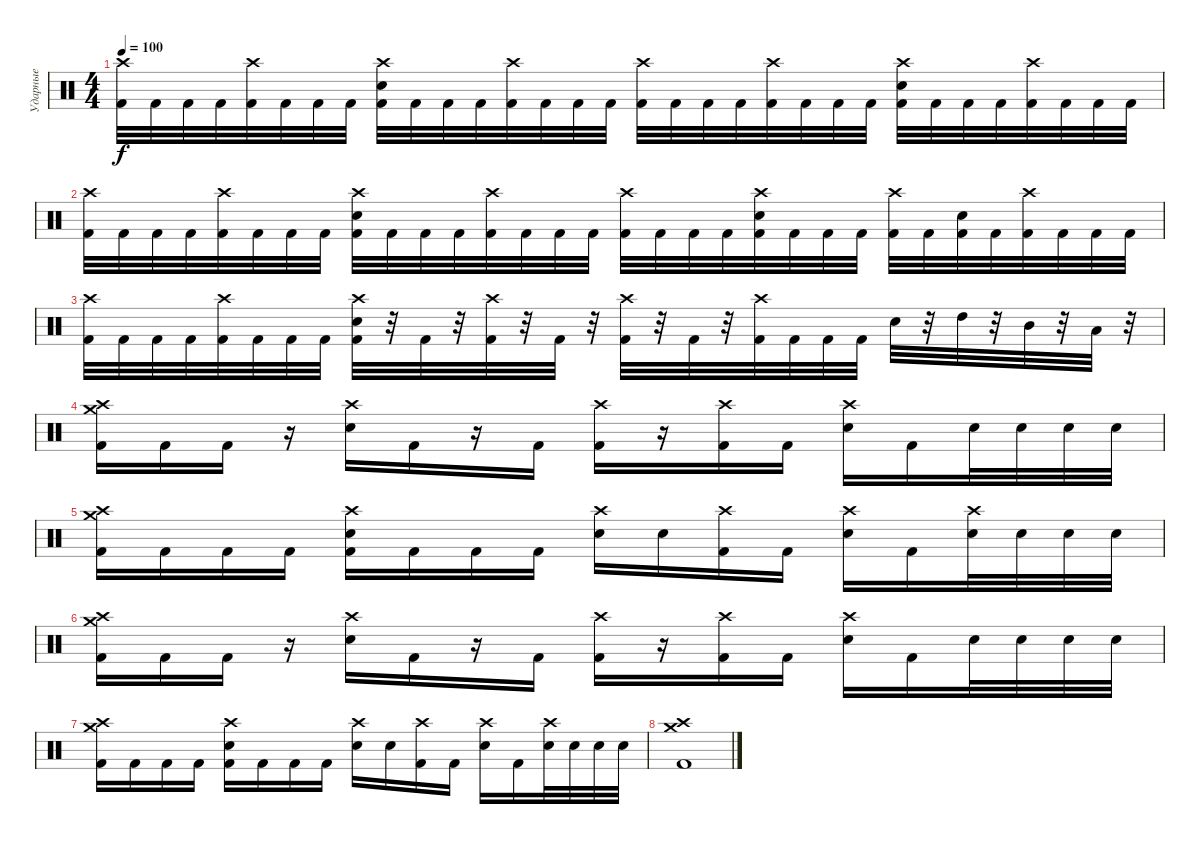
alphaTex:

\track ("Ударные" "Ударные") {instrument percussion}
\staff {score}
\articulation defaults
\ts (4 4)
\tempo 100
\clef neutral
\ks c
("Crash high (hit)" "Kick (hit) 2").32{dy f} "Kick (hit) 2".32 "Kick (hit) 2".32 "Kick (hit) 2".32 ("Crash high (hit)" "Kick (hit) 2").32 "Kick (hit) 2".32 "Kick (hit) 2".32 "Kick (hit) 2".32 ("Crash high (hit)" "Electric Snare (hit)" "Kick (hit) 2").32 "Kick (hit) 2".32 "Kick (hit) 2".32 "Kick (hit) 2".32 ("Crash high (hit)" "Kick (hit) 2").32 "Kick (hit) 2".32 "Kick (hit) 2".32 "Kick (hit) 2".32 ("Crash high (hit)" "Kick (hit) 2").32 "Kick (hit) 2".32 "Kick (hit) 2".32 "Kick (hit) 2".32 ("Crash high (hit)" "Kick (hit) 2").32 "Kick (hit) 2".32 "Kick (hit) 2".32 "Kick (hit) 2".32 ("Crash high (hit)" "Electric Snare (hit)" "Kick (hit) 2").32 "Kick (hit) 2".32 "Kick (hit) 2".32 "Kick (hit) 2".32 ("Crash high (hit)" "Kick (hit) 2").32 "Kick (hit) 2".32 "Kick (hit) 2".32 "Kick (hit) 2".32 |
("Crash high (hit)" "Kick (hit) 2").32 "Kick (hit) 2".32 "Kick (hit) 2".32 "Kick (hit) 2".32 ("Crash high (hit)" "Kick (hit) 2").32 "Kick (hit) 2".32 "Kick (hit) 2".32 "Kick (hit) 2".32 ("Crash high (hit)" "Electric Snare (hit)" "Kick (hit) 2").32 "Kick (hit) 2".32 "Kick (hit) 2".32 "Kick (hit) 2".32 ("Crash high (hit)" "Kick (hit) 2").32 "Kick (hit) 2".32 "Kick (hit) 2".32 "Kick (hit) 2".32 ("Crash high (hit)" "Kick (hit) 2").32 "Kick (hit) 2".32 "Kick (hit) 2".32 "Kick (hit) 2".32 ("Crash high (hit)" "Electric Snare (hit)" "Kick (hit) 2").32 "Kick (hit) 2".32 "Kick (hit) 2".32 "Kick (hit) 2".32 ("Crash high (hit)" "Kick (hit) 2").32 "Kick (hit) 2".32 ("Electric Snare (hit)" "Kick (hit) 2").32 "Kick (hit) 2".32 ("Crash high (hit)" "Kick (hit) 2").32 "Kick (hit) 2".32 "Kick (hit) 2".32 "Kick (hit) 2".32 |
("Crash high (hit)" "Kick (hit) 2").32 "Kick (hit) 2".32 "Kick (hit) 2".32 "Kick (hit) 2".32 ("Crash high (hit)" "Kick (hit) 2").32 "Kick (hit) 2".32 "Kick (hit) 2".32 "Kick (hit) 2".32 ("Crash high (hit)" "Electric Snare (hit)" "Kick (hit) 2").32 r.32 "Kick (hit) 2".32 r.32 ("Crash high (hit)" "Kick (hit) 2").32 r.32 "Kick (hit) 2".32 r.32 ("Crash high (hit)" "Kick (hit) 2").32 r.32 "Kick (hit) 2".32 r.32 ("Crash high (hit)" "Kick (hit) 2").32 "Kick (hit) 2".32 "Kick (hit) 2".32 "Kick (hit) 2".32 "Electric Snare (hit)".32 r.32 "High Tom (hit)".32 r.32 "Mid Tom (hit)".32 r.32 "Low Tom (hit)".32 r.32 |
("Crash medium (hit)" "Crash high (hit)" "Kick (hit) 2").16 "Kick (hit) 2".16 "Kick (hit) 2".16 r.16 ("Crash high (hit)" "Electric Snare (hit)").16 "Kick (hit) 2".16 r.16 "Kick (hit) 2".16 ("Crash high (hit)" "Kick (hit) 2").16 r.16 ("Crash high (hit)" "Kick (hit) 2").16 "Kick (hit) 2".16 ("Crash high (hit)" "Electric Snare (hit)").16 "Kick (hit) 2".16 "Electric Snare (hit)".32 "Electric Snare (hit)".32 "Electric Snare (hit)".32 "Electric Snare (hit)".32 |
("Crash medium (hit)" "Crash high (hit)" "Kick (hit) 2").16 "Kick (hit) 2".16 "Kick (hit) 2".16 "Kick (hit) 2".16 ("Crash high (hit)" "Electric Snare (hit)" "Kick (hit) 2").16 "Kick (hit) 2".16 "Kick (hit) 2".16 "Kick (hit) 2".16 ("Crash high (hit)" "Electric Snare (hit)").16 "Electric Snare (hit)".16 ("Crash high (hit)" "Kick (hit) 2").16 "Kick (hit) 2".16 ("Crash high (hit)" "Electric Snare (hit)").16 "Kick (hit) 2".16 ("Crash high (hit)" "Electric Snare (hit)").32 "Electric Snare (hit)".32 "Electric Snare (hit)".32 "Electric Snare (hit)".32 |
("Crash medium (hit)" "Crash high (hit)" "Kick (hit) 2").16 "Kick (hit) 2".16 "Kick (hit) 2".16 r.16 ("Crash high (hit)" "Electric Snare (hit)").16 "Kick (hit) 2".16 r.16 "Kick (hit) 2".16 ("Crash high (hit)" "Kick (hit) 2").16 r.16 ("Crash high (hit)" "Kick (hit) 2").16 "Kick (hit) 2".16 ("Crash high (hit)" "Electric Snare (hit)").16 "Kick (hit) 2".16 "Electric Snare (hit)".32 "Electric Snare (hit)".32 "Electric Snare (hit)".32 "Electric Snare (hit)".32 |
("Crash medium (hit)" "Crash high (hit)" "Kick (hit) 2").16 "Kick (hit) 2".16 "Kick (hit) 2".16 "Kick (hit) 2".16 ("Crash high (hit)" "Electric Snare (hit)" "Kick (hit) 2").16 "Kick (hit) 2".16 "Kick (hit) 2".16 "Kick (hit) 2".16 ("Crash high (hit)" "Electric Snare (hit)").16 "Electric Snare (hit)".16 ("Crash high (hit)" "Kick (hit) 2").16 "Kick (hit) 2".16 ("Crash high (hit)" "Electric Snare (hit)").16 "Kick (hit) 2".16 ("Crash high (hit)" "Electric Snare (hit)").32 "Electric Snare (hit)".32 "Electric Snare (hit)".32 "Electric Snare (hit)".32 |
("Crash medium (hit)" "Crash high (hit)" "Kick (hit) 2").1
